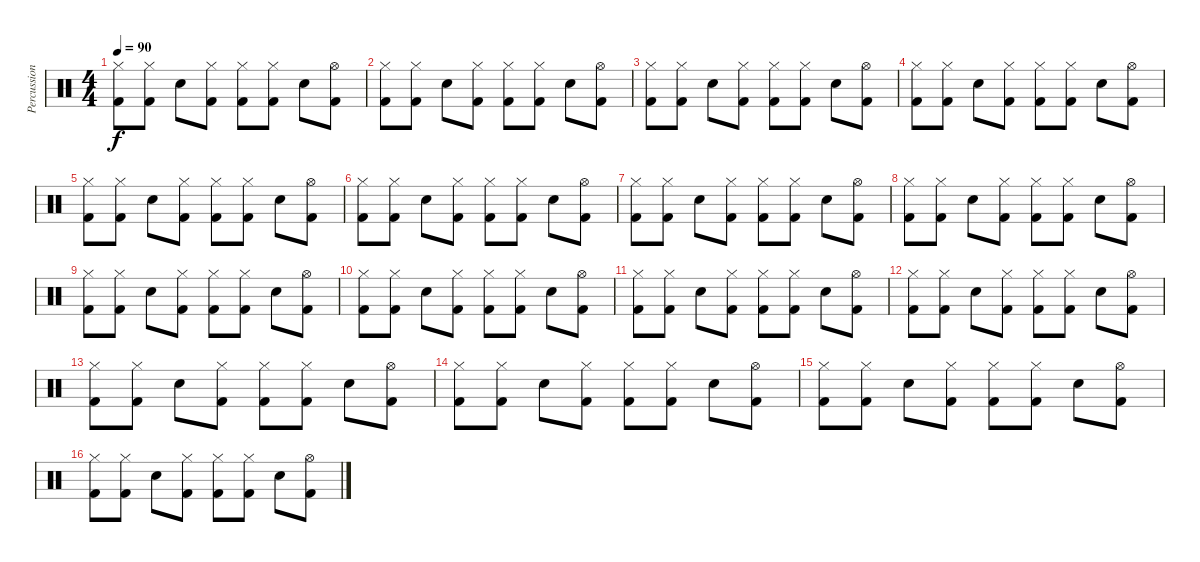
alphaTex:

\track ("Percussions" "Percussion") {instrument percussion}
\staff {score}
\articulation defaults
\ts (4 4)
\tempo 90
\clef neutral
\ks c
("Hi-Hat (closed)" "Kick (hit) 2").8{dy f} ("Hi-Hat (closed)" "Kick (hit) 2").8 "Snare (hit) 2".8 ("Hi-Hat (closed)" "Kick (hit) 2").8 ("Hi-Hat (closed)" "Kick (hit) 2").8 ("Hi-Hat (closed)" "Kick (hit) 2").8 "Snare (hit) 2".8 ("Hi-Hat (open)" "Kick (hit) 2").8 |
("Hi-Hat (closed)" "Kick (hit) 2").8 ("Hi-Hat (closed)" "Kick (hit) 2").8 "Snare (hit) 2".8 ("Hi-Hat (closed)" "Kick (hit) 2").8 ("Hi-Hat (closed)" "Kick (hit) 2").8 ("Hi-Hat (closed)" "Kick (hit) 2").8 "Snare (hit) 2".8 ("Hi-Hat (open)" "Kick (hit) 2").8 |
("Hi-Hat (closed)" "Kick (hit) 2").8 ("Hi-Hat (closed)" "Kick (hit) 2").8 "Snare (hit) 2".8 ("Hi-Hat (closed)" "Kick (hit) 2").8 ("Hi-Hat (closed)" "Kick (hit) 2").8 ("Hi-Hat (closed)" "Kick (hit) 2").8 "Snare (hit) 2".8 ("Hi-Hat (open)" "Kick (hit) 2").8 |
("Hi-Hat (closed)" "Kick (hit) 2").8 ("Hi-Hat (closed)" "Kick (hit) 2").8 "Snare (hit) 2".8 ("Hi-Hat (closed)" "Kick (hit) 2").8 ("Hi-Hat (closed)" "Kick (hit) 2").8 ("Hi-Hat (closed)" "Kick (hit) 2").8 "Snare (hit) 2".8 ("Hi-Hat (open)" "Kick (hit) 2").8 |
("Hi-Hat (closed)" "Kick (hit) 2").8 ("Hi-Hat (closed)" "Kick (hit) 2").8 "Snare (hit) 2".8 ("Hi-Hat (closed)" "Kick (hit) 2").8 ("Hi-Hat (closed)" "Kick (hit) 2").8 ("Hi-Hat (closed)" "Kick (hit) 2").8 "Snare (hit) 2".8 ("Hi-Hat (open)" "Kick (hit) 2").8 |
("Hi-Hat (closed)" "Kick (hit) 2").8 ("Hi-Hat (closed)" "Kick (hit) 2").8 "Snare (hit) 2".8 ("Hi-Hat (closed)" "Kick (hit) 2").8 ("Hi-Hat (closed)" "Kick (hit) 2").8 ("Hi-Hat (closed)" "Kick (hit) 2").8 "Snare (hit) 2".8 ("Hi-Hat (open)" "Kick (hit) 2").8 |
("Hi-Hat (closed)" "Kick (hit) 2").8 ("Hi-Hat (closed)" "Kick (hit) 2").8 "Snare (hit) 2".8 ("Hi-Hat (closed)" "Kick (hit) 2").8 ("Hi-Hat (closed)" "Kick (hit) 2").8 ("Hi-Hat (closed)" "Kick (hit) 2").8 "Snare (hit) 2".8 ("Hi-Hat (open)" "Kick (hit) 2").8 |
("Hi-Hat (closed)" "Kick (hit) 2").8 ("Hi-Hat (closed)" "Kick (hit) 2").8 "Snare (hit) 2".8 ("Hi-Hat (closed)" "Kick (hit) 2").8 ("Hi-Hat (closed)" "Kick (hit) 2").8 ("Hi-Hat (closed)" "Kick (hit) 2").8 "Snare (hit) 2".8 ("Hi-Hat (open)" "Kick (hit) 2").8 |
("Hi-Hat (closed)" "Kick (hit) 2").8 ("Hi-Hat (closed)" "Kick (hit) 2").8 "Snare (hit) 2".8 ("Hi-Hat (closed)" "Kick (hit) 2").8 ("Hi-Hat (closed)" "Kick (hit) 2").8 ("Hi-Hat (closed)" "Kick (hit) 2").8 "Snare (hit) 2".8 ("Hi-Hat (open)" "Kick (hit) 2").8 |
("Hi-Hat (closed)" "Kick (hit) 2").8 ("Hi-Hat (closed)" "Kick (hit) 2").8 "Snare (hit) 2".8 ("Hi-Hat (closed)" "Kick (hit) 2").8 ("Hi-Hat (closed)" "Kick (hit) 2").8 ("Hi-Hat (closed)" "Kick (hit) 2").8 "Snare (hit) 2".8 ("Hi-Hat (open)" "Kick (hit) 2").8 |
("Hi-Hat (closed)" "Kick (hit) 2").8 ("Hi-Hat (closed)" "Kick (hit) 2").8 "Snare (hit) 2".8 ("Hi-Hat (closed)" "Kick (hit) 2").8 ("Hi-Hat (closed)" "Kick (hit) 2").8 ("Hi-Hat (closed)" "Kick (hit) 2").8 "Snare (hit) 2".8 ("Hi-Hat (open)" "Kick (hit) 2").8 |
("Hi-Hat (closed)" "Kick (hit) 2").8 ("Hi-Hat (closed)" "Kick (hit) 2").8 "Snare (hit) 2".8 ("Hi-Hat (closed)" "Kick (hit) 2").8 ("Hi-Hat (closed)" "Kick (hit) 2").8 ("Hi-Hat (closed)" "Kick (hit) 2").8 "Snare (hit) 2".8 ("Hi-Hat (open)" "Kick (hit) 2").8 |
("Hi-Hat (closed)" "Kick (hit) 2").8 ("Hi-Hat (closed)" "Kick (hit) 2").8 "Snare (hit) 2".8 ("Hi-Hat (closed)" "Kick (hit) 2").8 ("Hi-Hat (closed)" "Kick (hit) 2").8 ("Hi-Hat (closed)" "Kick (hit) 2").8 "Snare (hit) 2".8 ("Hi-Hat (open)" "Kick (hit) 2").8 |
("Hi-Hat (closed)" "Kick (hit) 2").8 ("Hi-Hat (closed)" "Kick (hit) 2").8 "Snare (hit) 2".8 ("Hi-Hat (closed)" "Kick (hit) 2").8 ("Hi-Hat (closed)" "Kick (hit) 2").8 ("Hi-Hat (closed)" "Kick (hit) 2").8 "Snare (hit) 2".8 ("Hi-Hat (open)" "Kick (hit) 2").8 |
("Hi-Hat (closed)" "Kick (hit) 2").8 ("Hi-Hat (closed)" "Kick (hit) 2").8 "Snare (hit) 2".8 ("Hi-Hat (closed)" "Kick (hit) 2").8 ("Hi-Hat (closed)" "Kick (hit) 2").8 ("Hi-Hat (closed)" "Kick (hit) 2").8 "Snare (hit) 2".8 ("Hi-Hat (open)" "Kick (hit) 2").8 |
("Hi-Hat (closed)" "Kick (hit) 2").8 ("Hi-Hat (closed)" "Kick (hit) 2").8 "Snare (hit) 2".8 ("Hi-Hat (closed)" "Kick (hit) 2").8 ("Hi-Hat (closed)" "Kick (hit) 2").8 ("Hi-Hat (closed)" "Kick (hit) 2").8 "Snare (hit) 2".8 ("Hi-Hat (open)" "Kick (hit) 2").8
